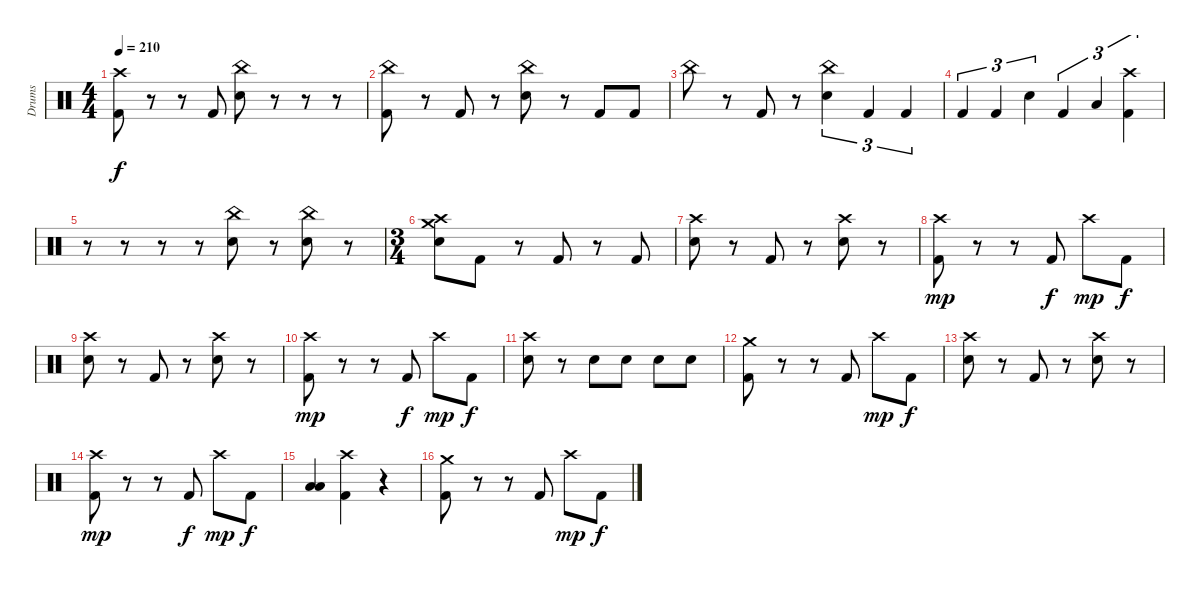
\track ("Drums" "Drums") {instrument percussion}
\staff {score}
\articulation defaults
\ts (4 4)
\tempo 210
\clef neutral
\ks c
("Crash high (hit)" "Kick (hit) 2").8{dy f} r.8 r.8 "Kick (hit) 2".8 ("China (hit)" "Electric Snare (hit)").8 r.8 r.8 r.8 |
("China (hit)" "Kick (hit) 2").8 r.8 "Kick (hit) 2".8 r.8 ("China (hit)" "Electric Snare (hit)").8 r.8 "Kick (hit) 2".8 "Kick (hit) 2".8 |
"China (hit)".8 r.8 "Kick (hit) 2".8 r.8 ("China (hit)" "Electric Snare (hit)").4{tu (3 2)} "Kick (hit) 2".4{tu (3 2)} "Kick (hit) 2".4{tu (3 2)} |
"Kick (hit) 2".4{tu (3 2)} "Kick (hit) 2".4{tu (3 2)} "Electric Snare (hit)".4{tu (3 2)} "Kick (hit) 2".4{tu (3 2)} "Low Tom (hit)".4{tu (3 2)} ("Crash high (hit)" "Kick (hit) 2").4{tu (3 2)} |
r.8 r.8 r.8 r.8 ("China (hit)" "Electric Snare (hit)").8 r.8 ("China (hit)" "Electric Snare (hit)").8 r.8 |
\ts (3 4)
("Crash high (hit)" "Crash medium (hit)" "Electric Snare (hit)").8 "Kick (hit) 2".8 r.8 "Kick (hit) 2".8 r.8 "Kick (hit) 2".8 |
("Crash high (hit)" "Electric Snare (hit)").8 r.8 "Kick (hit) 2".8 r.8 ("Crash high (hit)" "Electric Snare (hit)").8 r.8 |
("Crash high (hit)" "Kick (hit) 2").8{dy mp} r.8 r.8 "Kick (hit) 2".8{dy f} "Crash high (hit)".8{dy mp} "Kick (hit) 2".8{dy f} |
("Crash high (hit)" "Electric Snare (hit)").8 r.8 "Kick (hit) 2".8 r.8 ("Crash high (hit)" "Electric Snare (hit)").8 r.8 |
("Crash high (hit)" "Kick (hit) 2").8{dy mp} r.8 r.8 "Kick (hit) 2".8{dy f} "Crash high (hit)".8{dy mp} "Kick (hit) 2".8{dy f} |
("Crash high (hit)" "Electric Snare (hit)").8 r.8 "Electric Snare (hit)".8 "Electric Snare (hit)".8 "Electric Snare (hit)".8 "Electric Snare (hit)".8 |
("Crash medium (hit)" "Kick (hit) 2").8 r.8 r.8 "Kick (hit) 2".8 "Crash high (hit)".8{dy mp} "Kick (hit) 2".8{dy f} |
("Crash high (hit)" "Electric Snare (hit)").8 r.8 "Kick (hit) 2".8 r.8 ("Crash high (hit)" "Electric Snare (hit)").8 r.8 |
("Crash high (hit)" "Kick (hit) 2").8{dy mp} r.8 r.8 "Kick (hit) 2".8{dy f} "Crash high (hit)".8{dy mp} "Kick (hit) 2".8{dy f} |
("Low Floor Tom (hit)" "Low Floor Tom (hit)").4{bu 480} ("Crash high (hit)" "Kick (hit) 2").4 r.4 |
("Crash medium (hit)" "Kick (hit) 2").8 r.8 r.8 "Kick (hit) 2".8 "Crash high (hit)".8{dy mp} "Kick (hit) 2".8{dy f}
